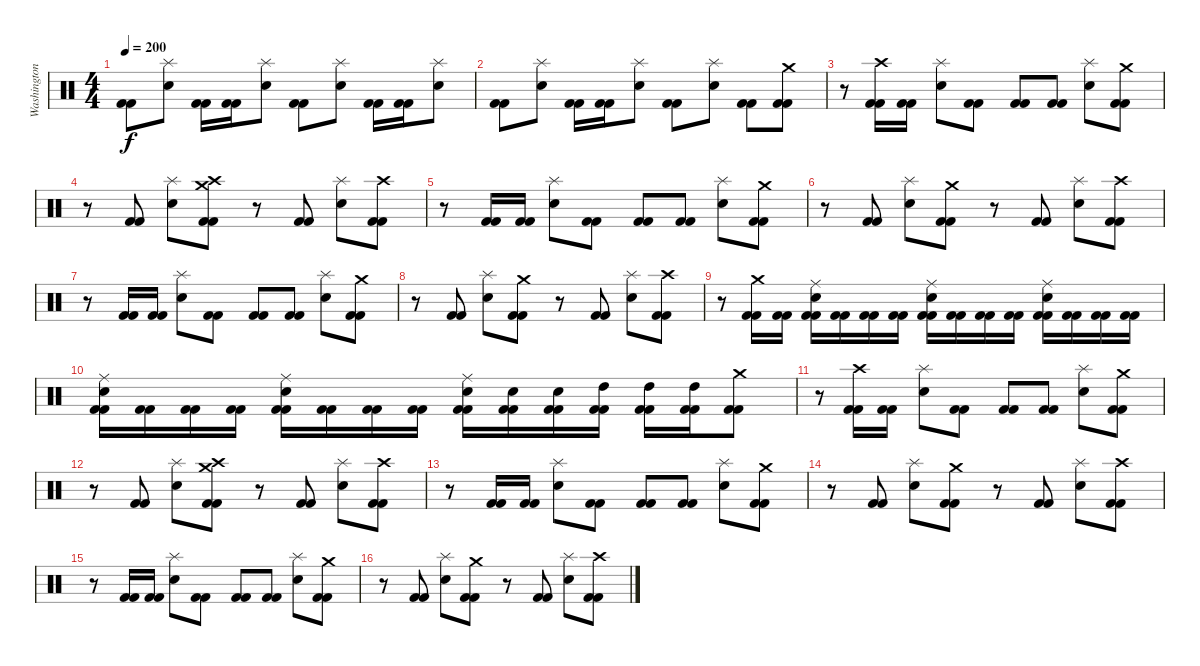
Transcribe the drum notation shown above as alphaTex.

\track ("Washington" "Washington") {instrument percussion}
\staff {score}
\articulation defaults
\ts (4 4)
\tempo 200
\clef neutral
\ks c
("Kick (hit) 2" "Kick (hit) 2").8{dy f} ("Splash (hit)" "Electric Snare (hit)").8 ("Kick (hit) 2" "Kick (hit) 2").16 ("Kick (hit) 2" "Kick (hit) 2").16 ("Splash (hit)" "Electric Snare (hit)").8 ("Kick (hit) 2" "Kick (hit) 2").8 ("Splash (hit)" "Electric Snare (hit)").8 ("Kick (hit) 2" "Kick (hit) 2").16 ("Kick (hit) 2" "Kick (hit) 2").16 ("Splash (hit)" "Electric Snare (hit)").8 |
("Kick (hit) 2" "Kick (hit) 2").8 ("Splash (hit)" "Electric Snare (hit)").8 ("Kick (hit) 2" "Kick (hit) 2").16 ("Kick (hit) 2" "Kick (hit) 2").16 ("Splash (hit)" "Electric Snare (hit)").8 ("Kick (hit) 2" "Kick (hit) 2").8 ("Splash (hit)" "Electric Snare (hit)").8 ("Kick (hit) 2" "Kick (hit) 2").8 ("Crash medium (hit)" "Kick (hit) 2" "Kick (hit) 2").8 |
r.8 ("Crash high (hit)" "Kick (hit) 2" "Kick (hit) 2").16 ("Kick (hit) 2" "Kick (hit) 2").16 ("Splash (hit)" "Electric Snare (hit)").8 ("Kick (hit) 2" "Kick (hit) 2").8 ("Kick (hit) 2" "Kick (hit) 2").8 ("Kick (hit) 2" "Kick (hit) 2").8 ("Splash (hit)" "Electric Snare (hit)").8 ("Crash medium (hit)" "Kick (hit) 2" "Kick (hit) 2").8 |
r.8 ("Kick (hit) 2" "Kick (hit) 2").8 ("Splash (hit)" "Electric Snare (hit)").8 ("Crash high (hit)" "Crash medium (hit)" "Kick (hit) 2" "Kick (hit) 2").8 r.8 ("Kick (hit) 2" "Kick (hit) 2").8 ("Splash (hit)" "Electric Snare (hit)").8 ("Crash high (hit)" "Kick (hit) 2" "Kick (hit) 2").8 |
r.8 ("Kick (hit) 2" "Kick (hit) 2").16 ("Kick (hit) 2" "Kick (hit) 2").16 ("Splash (hit)" "Electric Snare (hit)").8 ("Kick (hit) 2" "Kick (hit) 2").8 ("Kick (hit) 2" "Kick (hit) 2").8 ("Kick (hit) 2" "Kick (hit) 2").8 ("Splash (hit)" "Electric Snare (hit)").8 ("Crash medium (hit)" "Kick (hit) 2" "Kick (hit) 2").8 |
r.8 ("Kick (hit) 2" "Kick (hit) 2").8 ("Splash (hit)" "Electric Snare (hit)").8 ("Crash medium (hit)" "Kick (hit) 2" "Kick (hit) 2").8 r.8 ("Kick (hit) 2" "Kick (hit) 2").8 ("Splash (hit)" "Electric Snare (hit)").8 ("Crash high (hit)" "Kick (hit) 2" "Kick (hit) 2").8 |
r.8 ("Kick (hit) 2" "Kick (hit) 2").16 ("Kick (hit) 2" "Kick (hit) 2").16 ("Splash (hit)" "Electric Snare (hit)").8 ("Kick (hit) 2" "Kick (hit) 2").8 ("Kick (hit) 2" "Kick (hit) 2").8 ("Kick (hit) 2" "Kick (hit) 2").8 ("Splash (hit)" "Electric Snare (hit)").8 ("Crash medium (hit)" "Kick (hit) 2" "Kick (hit) 2").8 |
r.8 ("Kick (hit) 2" "Kick (hit) 2").8 ("Splash (hit)" "Electric Snare (hit)").8 ("Crash medium (hit)" "Kick (hit) 2" "Kick (hit) 2").8 r.8 ("Kick (hit) 2" "Kick (hit) 2").8 ("Splash (hit)" "Electric Snare (hit)").8 ("Crash high (hit)" "Kick (hit) 2" "Kick (hit) 2").8 |
r.8 ("Crash medium (hit)" "Kick (hit) 2" "Kick (hit) 2").16 ("Kick (hit) 2" "Kick (hit) 2").16 ("Ride (middle)" "Electric Snare (hit)" "Kick (hit) 2" "Kick (hit) 2").16 ("Kick (hit) 2" "Kick (hit) 2").16 ("Kick (hit) 2" "Kick (hit) 2").16 ("Kick (hit) 2" "Kick (hit) 2").16 ("Ride (middle)" "Electric Snare (hit)" "Kick (hit) 2" "Kick (hit) 2").16 ("Kick (hit) 2" "Kick (hit) 2").16 ("Kick (hit) 2" "Kick (hit) 2").16 ("Kick (hit) 2" "Kick (hit) 2").16 ("Ride (middle)" "Electric Snare (hit)" "Kick (hit) 2" "Kick (hit) 2").16 ("Kick (hit) 2" "Kick (hit) 2").16 ("Kick (hit) 2" "Kick (hit) 2").16 ("Kick (hit) 2" "Kick (hit) 2").16 |
("Ride (middle)" "Electric Snare (hit)" "Kick (hit) 2" "Kick (hit) 2").16 ("Kick (hit) 2" "Kick (hit) 2").16 ("Kick (hit) 2" "Kick (hit) 2").16 ("Kick (hit) 2" "Kick (hit) 2").16 ("Ride (middle)" "Electric Snare (hit)" "Kick (hit) 2" "Kick (hit) 2").16 ("Kick (hit) 2" "Kick (hit) 2").16 ("Kick (hit) 2" "Kick (hit) 2").16 ("Kick (hit) 2" "Kick (hit) 2").16 ("Ride (middle)" "Electric Snare (hit)" "Kick (hit) 2" "Kick (hit) 2").16 ("Electric Snare (hit)" "Kick (hit) 2" "Kick (hit) 2").16 ("Electric Snare (hit)" "Kick (hit) 2" "Kick (hit) 2").16 ("High Tom (hit)" "Kick (hit) 2" "Kick (hit) 2").16 ("High Tom (hit)" "Kick (hit) 2" "Kick (hit) 2").16 ("High Tom (hit)" "Kick (hit) 2" "Kick (hit) 2").16 ("Crash medium (hit)" "Kick (hit) 2" "Kick (hit) 2").8 |
r.8 ("Crash high (hit)" "Kick (hit) 2" "Kick (hit) 2").16 ("Kick (hit) 2" "Kick (hit) 2").16 ("Splash (hit)" "Electric Snare (hit)").8 ("Kick (hit) 2" "Kick (hit) 2").8 ("Kick (hit) 2" "Kick (hit) 2").8 ("Kick (hit) 2" "Kick (hit) 2").8 ("Splash (hit)" "Electric Snare (hit)").8 ("Crash medium (hit)" "Kick (hit) 2" "Kick (hit) 2").8 |
r.8 ("Kick (hit) 2" "Kick (hit) 2").8 ("Splash (hit)" "Electric Snare (hit)").8 ("Crash high (hit)" "Crash medium (hit)" "Kick (hit) 2" "Kick (hit) 2").8 r.8 ("Kick (hit) 2" "Kick (hit) 2").8 ("Splash (hit)" "Electric Snare (hit)").8 ("Crash high (hit)" "Kick (hit) 2" "Kick (hit) 2").8 |
r.8 ("Kick (hit) 2" "Kick (hit) 2").16 ("Kick (hit) 2" "Kick (hit) 2").16 ("Splash (hit)" "Electric Snare (hit)").8 ("Kick (hit) 2" "Kick (hit) 2").8 ("Kick (hit) 2" "Kick (hit) 2").8 ("Kick (hit) 2" "Kick (hit) 2").8 ("Splash (hit)" "Electric Snare (hit)").8 ("Crash medium (hit)" "Kick (hit) 2" "Kick (hit) 2").8 |
r.8 ("Kick (hit) 2" "Kick (hit) 2").8 ("Splash (hit)" "Electric Snare (hit)").8 ("Crash medium (hit)" "Kick (hit) 2" "Kick (hit) 2").8 r.8 ("Kick (hit) 2" "Kick (hit) 2").8 ("Splash (hit)" "Electric Snare (hit)").8 ("Crash high (hit)" "Kick (hit) 2" "Kick (hit) 2").8 |
r.8 ("Kick (hit) 2" "Kick (hit) 2").16 ("Kick (hit) 2" "Kick (hit) 2").16 ("Splash (hit)" "Electric Snare (hit)").8 ("Kick (hit) 2" "Kick (hit) 2").8 ("Kick (hit) 2" "Kick (hit) 2").8 ("Kick (hit) 2" "Kick (hit) 2").8 ("Splash (hit)" "Electric Snare (hit)").8 ("Crash medium (hit)" "Kick (hit) 2" "Kick (hit) 2").8 |
r.8 ("Kick (hit) 2" "Kick (hit) 2").8 ("Splash (hit)" "Electric Snare (hit)").8 ("Crash medium (hit)" "Kick (hit) 2" "Kick (hit) 2").8 r.8 ("Kick (hit) 2" "Kick (hit) 2").8 ("Splash (hit)" "Electric Snare (hit)").8 ("Crash high (hit)" "Kick (hit) 2" "Kick (hit) 2").8
